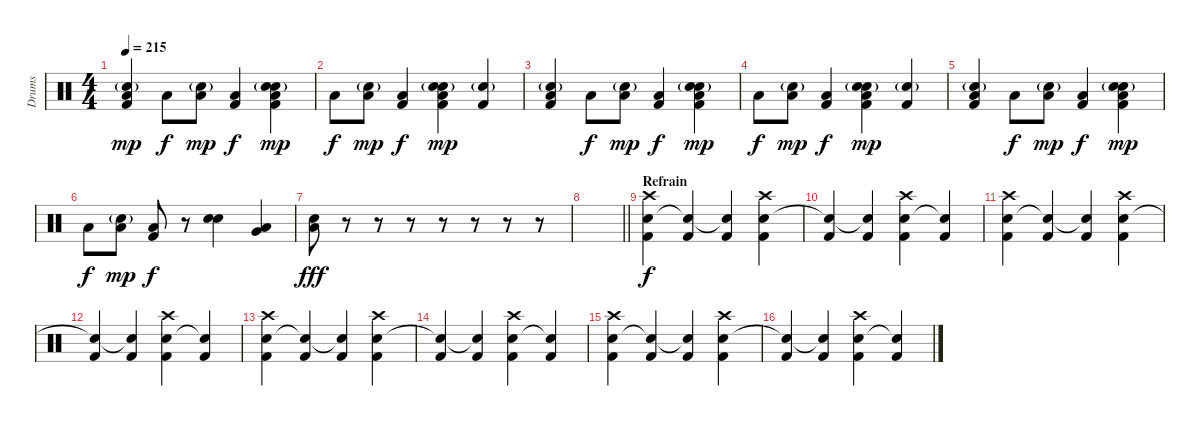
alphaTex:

\track ("Drums" "Drums") {instrument percussion}
\staff {score}
\articulation defaults
\ts (4 4)
\tempo 215
\clef neutral
\ks c
("Electric Snare (hit)"{g} "Low Floor Tom (hit)" "Kick (hit) 2").4{dy mp} "Low Floor Tom (hit)".8{dy f} ("Electric Snare (hit)"{g} "Low Floor Tom (hit)").8{dy mp} ("Low Floor Tom (hit)" "Kick (hit) 2").4{dy f} ("Electric Snare (hit)" "Kick (hit) 2" "Low Floor Tom (hit)" "Snare (hit) 2"{g}).4{dy mp} |
"Low Floor Tom (hit)".8{dy f} ("Electric Snare (hit)"{g} "Low Floor Tom (hit)").8{dy mp} ("Low Floor Tom (hit)" "Kick (hit) 2").4{dy f} ("Snare (hit) 2"{g} "Electric Snare (hit)" "Kick (hit) 2" "Low Floor Tom (hit)").4{dy mp} ("Electric Snare (hit)"{g} "Kick (hit) 2").4 |
("Electric Snare (hit)"{g} "Low Floor Tom (hit)" "Kick (hit) 2").4 "Low Floor Tom (hit)".8{dy f} ("Electric Snare (hit)"{g} "Low Floor Tom (hit)").8{dy mp} ("Low Floor Tom (hit)" "Kick (hit) 2").4{dy f} ("Electric Snare (hit)" "Kick (hit) 2" "Low Floor Tom (hit)" "Snare (hit) 2"{g}).4{dy mp} |
"Low Floor Tom (hit)".8{dy f} ("Electric Snare (hit)"{g} "Low Floor Tom (hit)").8{dy mp} ("Low Floor Tom (hit)" "Kick (hit) 2").4{dy f} ("Snare (hit) 2"{g} "Electric Snare (hit)" "Kick (hit) 2" "Low Floor Tom (hit)").4{dy mp} ("Electric Snare (hit)"{g} "Kick (hit) 2").4 |
("Electric Snare (hit)"{g} "Low Floor Tom (hit)" "Kick (hit) 2").4 "Low Floor Tom (hit)".8{dy f} ("Electric Snare (hit)"{g} "Low Floor Tom (hit)").8{dy mp} ("Low Floor Tom (hit)" "Kick (hit) 2").4{dy f} ("Electric Snare (hit)" "Kick (hit) 2" "Low Floor Tom (hit)" "Snare (hit) 2"{g}).4{dy mp} |
"Low Floor Tom (hit)".8{dy f} ("Electric Snare (hit)"{g} "Low Floor Tom (hit)").8{dy mp} ("Low Floor Tom (hit)" "Kick (hit) 2").8{dy f} r.8 ("Electric Snare (hit)" "Snare (hit) 2").4 ("Low Floor Tom (hit)" "Very Low Tom (hit)").4 |
("Snare (hit) 2" "Low Floor Tom (hit)").8{dy fff} r.8 r.8 r.8 r.8 r.8 r.8 r.8 |
\barLineRight lightlight
|
\section ("" "Refrain")
("Kick (hit) 2" "Snare (hit) 2" "Crash high (hit)").4{dy f} ("Kick (hit) 2" "Snare (hit)"{t}).4 ("Kick (hit) 2" "Snare (hit)"{t}).4 ("Kick (hit) 2" "Snare (hit) 2" "Crash high (hit)").4 |
("Kick (hit) 2" "Snare (hit)"{t}).4 ("Kick (hit) 2" "Snare (hit)"{t}).4 ("Kick (hit) 2" "Snare (hit) 2" "Crash high (hit)").4 ("Kick (hit) 2" "Snare (hit)"{t}).4 |
("Kick (hit) 2" "Snare (hit) 2" "Crash high (hit)").4 ("Kick (hit) 2" "Snare (hit)"{t}).4 ("Kick (hit) 2" "Snare (hit)"{t}).4 ("Kick (hit) 2" "Snare (hit) 2" "Crash high (hit)").4 |
("Kick (hit) 2" "Snare (hit)"{t}).4 ("Kick (hit) 2" "Snare (hit)"{t}).4 ("Kick (hit) 2" "Snare (hit) 2" "Crash high (hit)").4 ("Kick (hit) 2" "Snare (hit)"{t}).4 |
("Kick (hit) 2" "Snare (hit) 2" "Crash high (hit)").4 ("Kick (hit) 2" "Snare (hit)"{t}).4 ("Kick (hit) 2" "Snare (hit)"{t}).4 ("Kick (hit) 2" "Snare (hit) 2" "Crash high (hit)").4 |
("Kick (hit) 2" "Snare (hit)"{t}).4 ("Kick (hit) 2" "Snare (hit)"{t}).4 ("Kick (hit) 2" "Snare (hit) 2" "Crash high (hit)").4 ("Kick (hit) 2" "Snare (hit)"{t}).4 |
("Kick (hit) 2" "Snare (hit) 2" "Crash high (hit)").4 ("Kick (hit) 2" "Snare (hit)"{t}).4 ("Kick (hit) 2" "Snare (hit)"{t}).4 ("Kick (hit) 2" "Snare (hit) 2" "Crash high (hit)").4 |
("Kick (hit) 2" "Snare (hit)"{t}).4 ("Kick (hit) 2" "Snare (hit)"{t}).4 ("Kick (hit) 2" "Snare (hit) 2" "Crash high (hit)").4 ("Kick (hit) 2" "Snare (hit)"{t}).4
